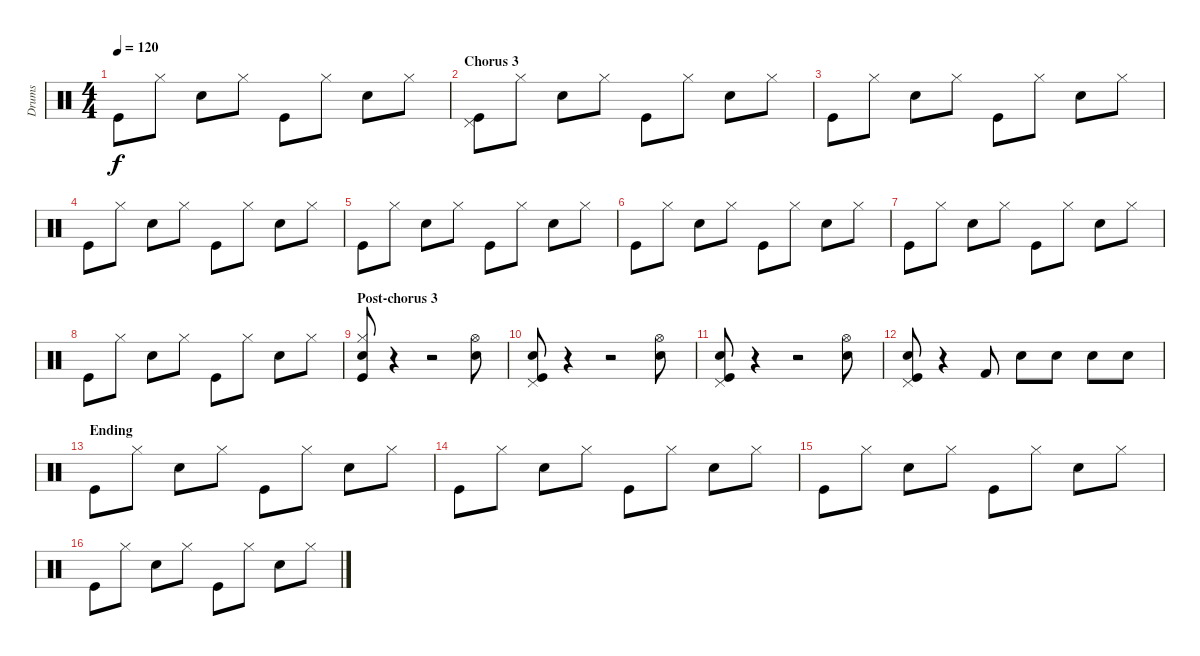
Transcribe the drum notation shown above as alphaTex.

\track ("Drums" "Drums") {instrument percussion}
\staff {score}
\articulation defaults
\ts (4 4)
\tempo 120
\clef neutral
\ks c "Kick (hit)".8{dy f} "Hi-Hat (closed)".8 "Snare (hit) 2".8 "Hi-Hat (closed)".8 "Kick (hit)".8 "Hi-Hat (closed)".8 "Snare (hit) 2".8 "Hi-Hat (closed)".8
|
\section ("" "Chorus 3")
("Pedal Hi-Hat (hit)" "Kick (hit)").8 "Hi-Hat (closed)".8 "Snare (hit) 2".8 "Hi-Hat (closed)".8 "Kick (hit)".8 "Hi-Hat (closed)".8 "Snare (hit) 2".8 "Hi-Hat (closed)".8 |
"Kick (hit)".8 "Hi-Hat (closed)".8 "Snare (hit) 2".8 "Hi-Hat (closed)".8 "Kick (hit)".8 "Hi-Hat (closed)".8 "Snare (hit) 2".8 "Hi-Hat (closed)".8 |
"Kick (hit)".8 "Hi-Hat (closed)".8 "Snare (hit) 2".8 "Hi-Hat (closed)".8 "Kick (hit)".8 "Hi-Hat (closed)".8 "Snare (hit) 2".8 "Hi-Hat (closed)".8 |
"Kick (hit)".8 "Hi-Hat (closed)".8 "Snare (hit) 2".8 "Hi-Hat (closed)".8 "Kick (hit)".8 "Hi-Hat (closed)".8 "Snare (hit) 2".8 "Hi-Hat (closed)".8 |
"Kick (hit)".8 "Hi-Hat (closed)".8 "Snare (hit) 2".8 "Hi-Hat (closed)".8 "Kick (hit)".8 "Hi-Hat (closed)".8 "Snare (hit) 2".8 "Hi-Hat (closed)".8 |
"Kick (hit)".8 "Hi-Hat (closed)".8 "Snare (hit) 2".8 "Hi-Hat (closed)".8 "Kick (hit)".8 "Hi-Hat (closed)".8 "Snare (hit) 2".8 "Hi-Hat (closed)".8 |
"Kick (hit)".8 "Hi-Hat (closed)".8 "Snare (hit) 2".8 "Hi-Hat (closed)".8 "Kick (hit)".8 "Hi-Hat (closed)".8 "Snare (hit) 2".8 "Hi-Hat (closed)".8 |
\section ("" "Post-chorus 3")
("Hi-Hat (closed)" "Snare (hit) 2" "Kick (hit)").8 r.4 r.2 ("Hi-Hat (open)" "Snare (hit) 2").8 |
("Pedal Hi-Hat (hit)" "Snare (hit) 2" "Kick (hit)").8 r.4 r.2 ("Hi-Hat (open)" "Snare (hit) 2").8 |
("Pedal Hi-Hat (hit)" "Snare (hit) 2" "Kick (hit)").8 r.4 r.2 ("Hi-Hat (open)" "Snare (hit) 2").8 |
("Pedal Hi-Hat (hit)" "Snare (hit) 2" "Kick (hit)").8 r.4 "Kick (hit) 2".8 "Snare (hit) 2".8 "Snare (hit) 2".8 "Snare (hit) 2".8 "Snare (hit) 2".8 |
\section ("" "Ending")
"Kick (hit)".8 "Hi-Hat (closed)".8 "Snare (hit) 2".8 "Hi-Hat (closed)".8 "Kick (hit)".8 "Hi-Hat (closed)".8 "Snare (hit) 2".8 "Hi-Hat (closed)".8 |
"Kick (hit)".8 "Hi-Hat (closed)".8 "Snare (hit) 2".8 "Hi-Hat (closed)".8 "Kick (hit)".8 "Hi-Hat (closed)".8 "Snare (hit) 2".8 "Hi-Hat (closed)".8 |
"Kick (hit)".8 "Hi-Hat (closed)".8 "Snare (hit) 2".8 "Hi-Hat (closed)".8 "Kick (hit)".8 "Hi-Hat (closed)".8 "Snare (hit) 2".8 "Hi-Hat (closed)".8 |
"Kick (hit)".8 "Hi-Hat (closed)".8 "Snare (hit) 2".8 "Hi-Hat (closed)".8 "Kick (hit)".8 "Hi-Hat (closed)".8 "Snare (hit) 2".8 "Hi-Hat (closed)".8
